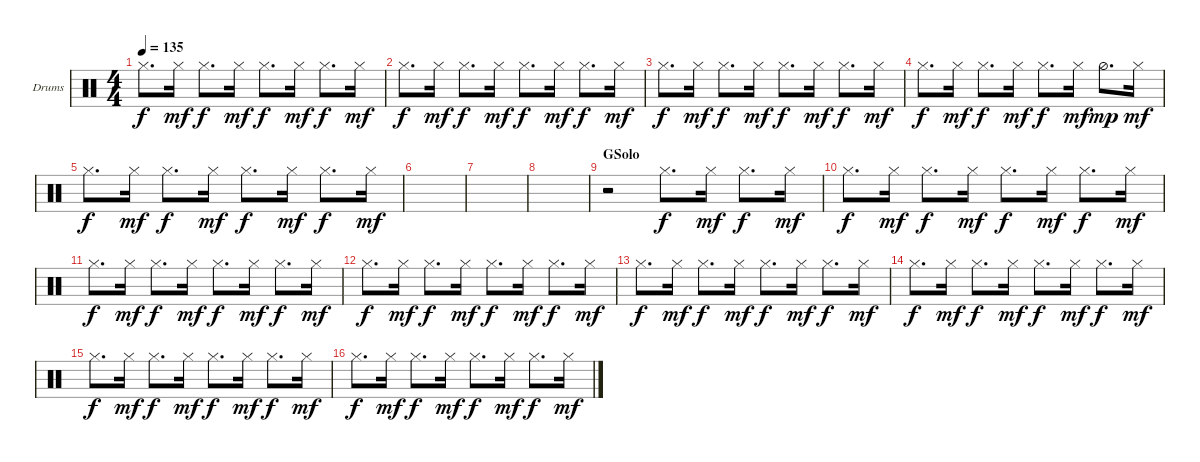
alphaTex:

\bracketExtendMode groupsimilarinstruments
\firstSystemTrackNameOrientation horizontal
\otherSystemsTrackNameOrientation horizontal
\track ("HH" "Drums") {instrument percussion}
\staff {score}
\articulation defaults
\ts (4 4)
\tempo 135
\clef neutral
\ks c "Hi-Hat (closed)".8{d dy f} "Hi-Hat (closed)".16{dy mf} "Hi-Hat (closed)".8{d dy f} "Hi-Hat (closed)".16{dy mf} "Hi-Hat (closed)".8{d dy f} "Hi-Hat (closed)".16{dy mf} "Hi-Hat (closed)".8{d dy f} "Hi-Hat (closed)".16{dy mf}
|
"Hi-Hat (closed)".8{d dy f} "Hi-Hat (closed)".16{dy mf} "Hi-Hat (closed)".8{d dy f} "Hi-Hat (closed)".16{dy mf} "Hi-Hat (closed)".8{d dy f} "Hi-Hat (closed)".16{dy mf} "Hi-Hat (closed)".8{d dy f} "Hi-Hat (closed)".16{dy mf} |
"Hi-Hat (closed)".8{d dy f} "Hi-Hat (closed)".16{dy mf} "Hi-Hat (closed)".8{d dy f} "Hi-Hat (closed)".16{dy mf} "Hi-Hat (closed)".8{d dy f} "Hi-Hat (closed)".16{dy mf} "Hi-Hat (closed)".8{d dy f} "Hi-Hat (closed)".16{dy mf} |
"Hi-Hat (closed)".8{d dy f} "Hi-Hat (closed)".16{dy mf} "Hi-Hat (closed)".8{d dy f} "Hi-Hat (closed)".16{dy mf} "Hi-Hat (closed)".8{d dy f} "Hi-Hat (closed)".16{dy mf} "Hi-Hat (half)".8{d dy mp} "Hi-Hat (closed)".16{dy mf} |
"Hi-Hat (closed)".8{d dy f} "Hi-Hat (closed)".16{dy mf} "Hi-Hat (closed)".8{d dy f} "Hi-Hat (closed)".16{dy mf} "Hi-Hat (closed)".8{d dy f} "Hi-Hat (closed)".16{dy mf} "Hi-Hat (closed)".8{d dy f} "Hi-Hat (closed)".16{dy mf} |
|
|
|
\section ("" "GSolo")
r.2 "Hi-Hat (closed)".8{d dy f} "Hi-Hat (closed)".16{dy mf} "Hi-Hat (closed)".8{d dy f} "Hi-Hat (closed)".16{dy mf} |
"Hi-Hat (closed)".8{d dy f} "Hi-Hat (closed)".16{dy mf} "Hi-Hat (closed)".8{d dy f} "Hi-Hat (closed)".16{dy mf} "Hi-Hat (closed)".8{d dy f} "Hi-Hat (closed)".16{dy mf} "Hi-Hat (closed)".8{d dy f} "Hi-Hat (closed)".16{dy mf} |
"Hi-Hat (closed)".8{d dy f} "Hi-Hat (closed)".16{dy mf} "Hi-Hat (closed)".8{d dy f} "Hi-Hat (closed)".16{dy mf} "Hi-Hat (closed)".8{d dy f} "Hi-Hat (closed)".16{dy mf} "Hi-Hat (closed)".8{d dy f} "Hi-Hat (closed)".16{dy mf} |
"Hi-Hat (closed)".8{d dy f} "Hi-Hat (closed)".16{dy mf} "Hi-Hat (closed)".8{d dy f} "Hi-Hat (closed)".16{dy mf} "Hi-Hat (closed)".8{d dy f} "Hi-Hat (closed)".16{dy mf} "Hi-Hat (closed)".8{d dy f} "Hi-Hat (closed)".16{dy mf} |
"Hi-Hat (closed)".8{d dy f} "Hi-Hat (closed)".16{dy mf} "Hi-Hat (closed)".8{d dy f} "Hi-Hat (closed)".16{dy mf} "Hi-Hat (closed)".8{d dy f} "Hi-Hat (closed)".16{dy mf} "Hi-Hat (closed)".8{d dy f} "Hi-Hat (closed)".16{dy mf} |
"Hi-Hat (closed)".8{d dy f} "Hi-Hat (closed)".16{dy mf} "Hi-Hat (closed)".8{d dy f} "Hi-Hat (closed)".16{dy mf} "Hi-Hat (closed)".8{d dy f} "Hi-Hat (closed)".16{dy mf} "Hi-Hat (closed)".8{d dy f} "Hi-Hat (closed)".16{dy mf} |
"Hi-Hat (closed)".8{d dy f} "Hi-Hat (closed)".16{dy mf} "Hi-Hat (closed)".8{d dy f} "Hi-Hat (closed)".16{dy mf} "Hi-Hat (closed)".8{d dy f} "Hi-Hat (closed)".16{dy mf} "Hi-Hat (closed)".8{d dy f} "Hi-Hat (closed)".16{dy mf} |
"Hi-Hat (closed)".8{d dy f} "Hi-Hat (closed)".16{dy mf} "Hi-Hat (closed)".8{d dy f} "Hi-Hat (closed)".16{dy mf} "Hi-Hat (closed)".8{d dy f} "Hi-Hat (closed)".16{dy mf} "Hi-Hat (closed)".8{d dy f} "Hi-Hat (closed)".16{dy mf}
